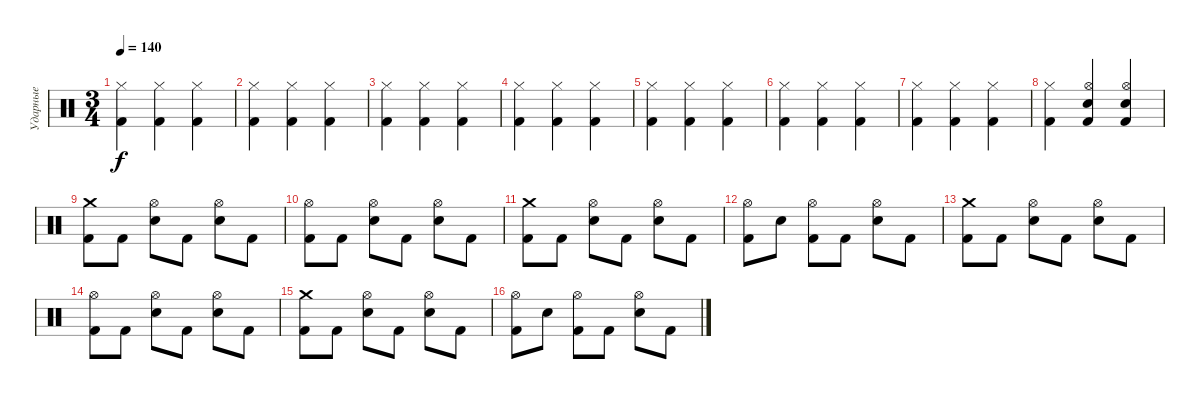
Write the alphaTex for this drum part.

\track ("Ударные" "Ударные") {instrument percussion}
\staff {score}
\articulation defaults
\ts (3 4)
\tempo 140
\clef neutral
\ks c
("Hi-Hat (closed)" "Kick (hit) 2").4{dy f} ("Hi-Hat (closed)" "Kick (hit) 2").4 ("Hi-Hat (closed)" "Kick (hit) 2").4 |
("Hi-Hat (closed)" "Kick (hit) 2").4 ("Hi-Hat (closed)" "Kick (hit) 2").4 ("Hi-Hat (closed)" "Kick (hit) 2").4 |
("Hi-Hat (closed)" "Kick (hit) 2").4 ("Hi-Hat (closed)" "Kick (hit) 2").4 ("Hi-Hat (closed)" "Kick (hit) 2").4 |
("Hi-Hat (closed)" "Kick (hit) 2").4 ("Hi-Hat (closed)" "Kick (hit) 2").4 ("Hi-Hat (closed)" "Kick (hit) 2").4 |
("Hi-Hat (closed)" "Kick (hit) 2").4 ("Hi-Hat (closed)" "Kick (hit) 2").4 ("Hi-Hat (closed)" "Kick (hit) 2").4 |
("Hi-Hat (closed)" "Kick (hit) 2").4 ("Hi-Hat (closed)" "Kick (hit) 2").4 ("Hi-Hat (closed)" "Kick (hit) 2").4 |
("Hi-Hat (closed)" "Kick (hit) 2").4 ("Hi-Hat (closed)" "Kick (hit) 2").4 ("Hi-Hat (closed)" "Kick (hit) 2").4 |
("Hi-Hat (closed)" "Kick (hit) 2").4 ("Hi-Hat (open)" "Electric Snare (hit)" "Kick (hit) 2").4 ("Hi-Hat (open)" "Electric Snare (hit)" "Kick (hit) 2").4 |
("Crash medium (hit)" "Kick (hit) 2").8 "Kick (hit) 2".8 ("Hi-Hat (open)" "Electric Snare (hit)").8 "Kick (hit) 2".8 ("Hi-Hat (open)" "Electric Snare (hit)").8 "Kick (hit) 2".8 |
("Hi-Hat (open)" "Kick (hit) 2").8 "Kick (hit) 2".8 ("Hi-Hat (open)" "Electric Snare (hit)").8 "Kick (hit) 2".8 ("Hi-Hat (open)" "Electric Snare (hit)").8 "Kick (hit) 2".8 |
("Crash medium (hit)" "Kick (hit) 2").8 "Kick (hit) 2".8 ("Hi-Hat (open)" "Electric Snare (hit)").8 "Kick (hit) 2".8 ("Hi-Hat (open)" "Electric Snare (hit)").8 "Kick (hit) 2".8 |
("Hi-Hat (open)" "Kick (hit) 2").8 "Electric Snare (hit)".8 ("Hi-Hat (open)" "Kick (hit) 2").8 "Kick (hit) 2".8 ("Hi-Hat (open)" "Electric Snare (hit)").8 "Kick (hit) 2".8 |
("Crash medium (hit)" "Kick (hit) 2").8 "Kick (hit) 2".8 ("Hi-Hat (open)" "Electric Snare (hit)").8 "Kick (hit) 2".8 ("Hi-Hat (open)" "Electric Snare (hit)").8 "Kick (hit) 2".8 |
("Hi-Hat (open)" "Kick (hit) 2").8 "Kick (hit) 2".8 ("Hi-Hat (open)" "Electric Snare (hit)").8 "Kick (hit) 2".8 ("Hi-Hat (open)" "Electric Snare (hit)").8 "Kick (hit) 2".8 |
("Crash medium (hit)" "Kick (hit) 2").8 "Kick (hit) 2".8 ("Hi-Hat (open)" "Electric Snare (hit)").8 "Kick (hit) 2".8 ("Hi-Hat (open)" "Electric Snare (hit)").8 "Kick (hit) 2".8 |
("Hi-Hat (open)" "Kick (hit) 2").8 "Electric Snare (hit)".8 ("Hi-Hat (open)" "Kick (hit) 2").8 "Kick (hit) 2".8 ("Hi-Hat (open)" "Electric Snare (hit)").8 "Kick (hit) 2".8
